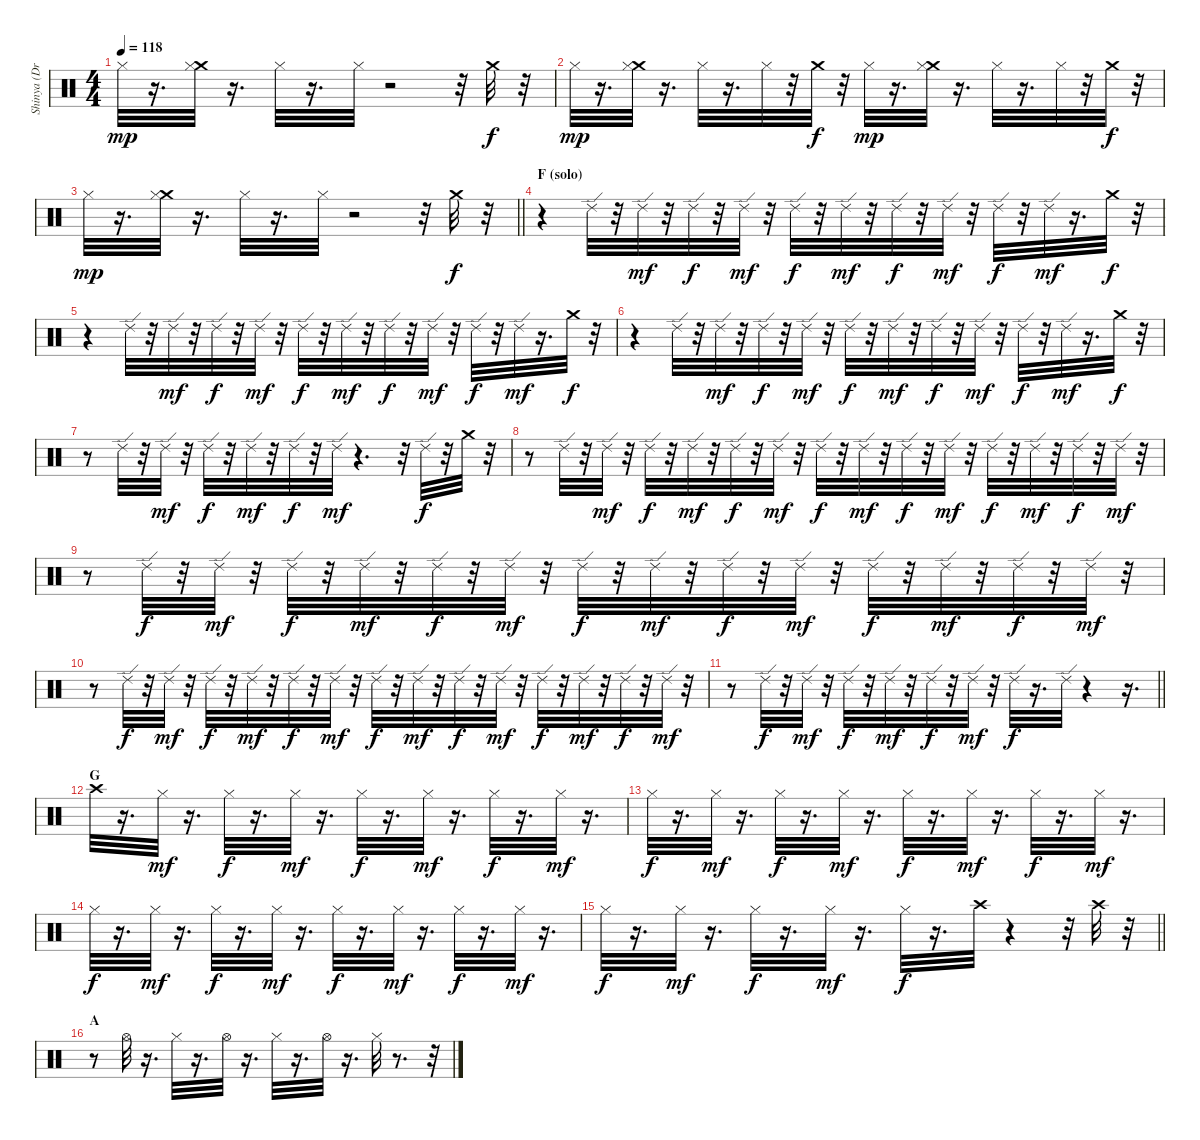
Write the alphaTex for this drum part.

\track ("Shinya (Drums)" "Shinya (Dr") {instrument percussion}
\staff {score}
\articulation defaults
\ts (4 4)
\tempo 118
\clef neutral
\ks c "Hi-Hat (closed)".32{dy mp}
r.16{d} ("Crash medium (hit)" "Hi-Hat (closed)").32 r.16{d} "Hi-Hat (closed)".32 r.16{d} "Hi-Hat (closed)".32 r.2 r.32 "Crash medium (hit)".32{dy f} r.32 |
"Hi-Hat (closed)".32{dy mp} r.16{d} ("Crash medium (hit)" "Hi-Hat (closed)").32 r.16{d} "Hi-Hat (closed)".32 r.16{d} "Hi-Hat (closed)".32 r.32 "Crash medium (hit)".32{dy f} r.32 "Hi-Hat (closed)".32{dy mp} r.16{d} ("Crash medium (hit)" "Hi-Hat (closed)").32 r.16{d} "Hi-Hat (closed)".32 r.16{d} "Hi-Hat (closed)".32 r.32 "Crash medium (hit)".32{dy f} r.32 |
\barLineRight lightlight "Hi-Hat (closed)".32{dy mp}
r.16{d} ("Crash medium (hit)" "Hi-Hat (closed)").32 r.16{d} "Hi-Hat (closed)".32 r.16{d} "Hi-Hat (closed)".32 r.2 r.32 "Crash medium (hit)".32{dy f} r.32 |
\section ("" "F (solo)")
r.4 "Ride (edge) 2".32 r.32 "Ride (edge) 2".32{dy mf} r.32 "Ride (edge) 2".32{dy f} r.32 "Ride (edge) 2".32{dy mf} r.32 "Ride (edge) 2".32{dy f} r.32 "Ride (edge) 2".32{dy mf} r.32 "Ride (edge) 2".32{dy f} r.32 "Ride (edge) 2".32{dy mf} r.32 "Ride (edge) 2".32{dy f} r.32 "Ride (edge) 2".32{dy mf} r.16{d} "Crash medium (hit)".32{dy f} r.32 |
r.4 "Ride (edge) 2".32 r.32 "Ride (edge) 2".32{dy mf} r.32 "Ride (edge) 2".32{dy f} r.32 "Ride (edge) 2".32{dy mf} r.32 "Ride (edge) 2".32{dy f} r.32 "Ride (edge) 2".32{dy mf} r.32 "Ride (edge) 2".32{dy f} r.32 "Ride (edge) 2".32{dy mf} r.32 "Ride (edge) 2".32{dy f} r.32 "Ride (edge) 2".32{dy mf} r.16{d} "Crash medium (hit)".32{dy f} r.32 |
r.4 "Ride (edge) 2".32 r.32 "Ride (edge) 2".32{dy mf} r.32 "Ride (edge) 2".32{dy f} r.32 "Ride (edge) 2".32{dy mf} r.32 "Ride (edge) 2".32{dy f} r.32 "Ride (edge) 2".32{dy mf} r.32 "Ride (edge) 2".32{dy f} r.32 "Ride (edge) 2".32{dy mf} r.32 "Ride (edge) 2".32{dy f} r.32 "Ride (edge) 2".32{dy mf} r.16{d} "Crash medium (hit)".32{dy f} r.32 |
r.8 "Ride (edge) 2".32 r.32 "Ride (edge) 2".32{dy mf} r.32 "Ride (edge) 2".32{dy f} r.32 "Ride (edge) 2".32{dy mf} r.32 "Ride (edge) 2".32{dy f} r.32 "Ride (edge) 2".32{dy mf} r.4{d} r.32 "Ride (edge) 2".32{dy f} r.32 "Crash medium (hit)".32 r.32 |
r.8 "Ride (edge) 2".32 r.32 "Ride (edge) 2".32{dy mf} r.32 "Ride (edge) 2".32{dy f} r.32 "Ride (edge) 2".32{dy mf} r.32 "Ride (edge) 2".32{dy f} r.32 "Ride (edge) 2".32{dy mf} r.32 "Ride (edge) 2".32{dy f} r.32 "Ride (edge) 2".32{dy mf} r.32 "Ride (edge) 2".32{dy f} r.32 "Ride (edge) 2".32{dy mf} r.32 "Ride (edge) 2".32{dy f} r.32 "Ride (edge) 2".32{dy mf} r.32 "Ride (edge) 2".32{dy f} r.32 "Ride (edge) 2".32{dy mf} r.32 |
r.8 "Ride (edge) 2".32{dy f} r.32 "Ride (edge) 2".32{dy mf} r.32 "Ride (edge) 2".32{dy f} r.32 "Ride (edge) 2".32{dy mf} r.32 "Ride (edge) 2".32{dy f} r.32 "Ride (edge) 2".32{dy mf} r.32 "Ride (edge) 2".32{dy f} r.32 "Ride (edge) 2".32{dy mf} r.32 "Ride (edge) 2".32{dy f} r.32 "Ride (edge) 2".32{dy mf} r.32 "Ride (edge) 2".32{dy f} r.32 "Ride (edge) 2".32{dy mf} r.32 "Ride (edge) 2".32{dy f} r.32 "Ride (edge) 2".32{dy mf} r.32 |
r.8 "Ride (edge) 2".32{dy f} r.32 "Ride (edge) 2".32{dy mf} r.32 "Ride (edge) 2".32{dy f} r.32 "Ride (edge) 2".32{dy mf} r.32 "Ride (edge) 2".32{dy f} r.32 "Ride (edge) 2".32{dy mf} r.32 "Ride (edge) 2".32{dy f} r.32 "Ride (edge) 2".32{dy mf} r.32 "Ride (edge) 2".32{dy f} r.32 "Ride (edge) 2".32{dy mf} r.32 "Ride (edge) 2".32{dy f} r.32 "Ride (edge) 2".32{dy mf} r.32 "Ride (edge) 2".32{dy f} r.32 "Ride (edge) 2".32{dy mf} r.32 |
\barLineRight lightlight
r.8 "Ride (edge) 2".32{dy f} r.32 "Ride (edge) 2".32{dy mf} r.32 "Ride (edge) 2".32{dy f} r.32 "Ride (edge) 2".32{dy mf} r.32 "Ride (edge) 2".32{dy f} r.32 "Ride (edge) 2".32{dy mf} r.32 "Ride (edge) 2".32{dy f} r.16{d} "Ride (edge) 2".32 r.4 r.16{d} |
\section ("" "G")
"Crash high (hit)".32 r.16{d} "Hi-Hat (closed)".32{dy mf} r.16{d} "Hi-Hat (closed)".32{dy f} r.16{d} "Hi-Hat (closed)".32{dy mf} r.16{d} "Hi-Hat (closed)".32{dy f} r.16{d} "Hi-Hat (closed)".32{dy mf} r.16{d} "Hi-Hat (closed)".32{dy f} r.16{d} "Hi-Hat (closed)".32{dy mf} r.16{d} |
"Hi-Hat (closed)".32{dy f} r.16{d} "Hi-Hat (closed)".32{dy mf} r.16{d} "Hi-Hat (closed)".32{dy f} r.16{d} "Hi-Hat (closed)".32{dy mf} r.16{d} "Hi-Hat (closed)".32{dy f} r.16{d} "Hi-Hat (closed)".32{dy mf} r.16{d} "Hi-Hat (closed)".32{dy f} r.16{d} "Hi-Hat (closed)".32{dy mf} r.16{d} |
"Hi-Hat (closed)".32{dy f} r.16{d} "Hi-Hat (closed)".32{dy mf} r.16{d} "Hi-Hat (closed)".32{dy f} r.16{d} "Hi-Hat (closed)".32{dy mf} r.16{d} "Hi-Hat (closed)".32{dy f} r.16{d} "Hi-Hat (closed)".32{dy mf} r.16{d} "Hi-Hat (closed)".32{dy f} r.16{d} "Hi-Hat (closed)".32{dy mf} r.16{d} |
\barLineRight lightlight "Hi-Hat (closed)".32{dy f}
r.16{d} "Hi-Hat (closed)".32{dy mf} r.16{d} "Hi-Hat (closed)".32{dy f} r.16{d} "Hi-Hat (closed)".32{dy mf} r.16{d} "Hi-Hat (closed)".32{dy f} r.16{d} "Crash high (hit)".32 r.4 r.32 "Crash high (hit)".32 r.32 |
\section ("" "A")
r.8 "Hi-Hat (open)".32 r.16{d} "Hi-Hat (closed)".32 r.16{d} "Hi-Hat (open)".32 r.16{d} "Hi-Hat (closed)".32 r.16{d} "Hi-Hat (open)".32 r.16{d} "Hi-Hat (closed)".32 r.8{d} r.32
